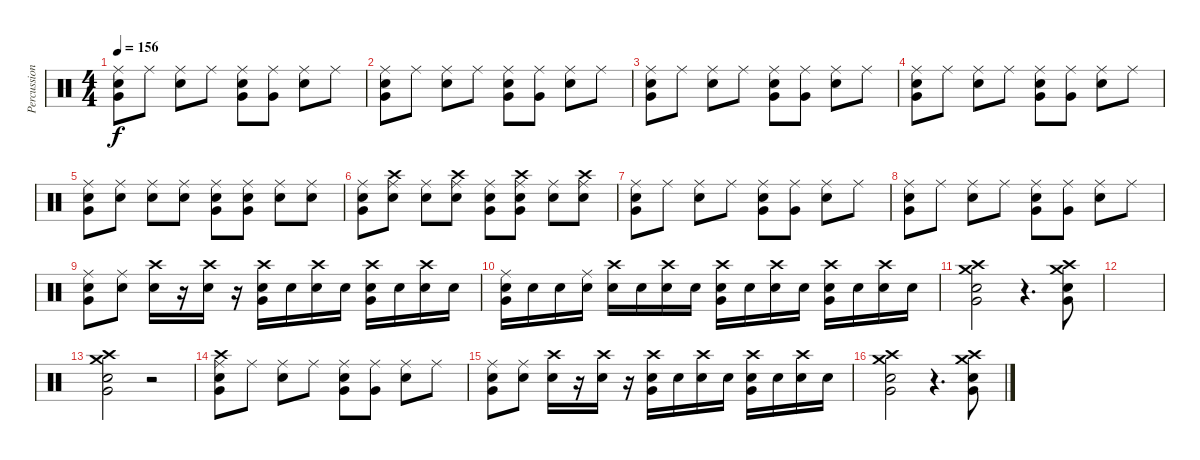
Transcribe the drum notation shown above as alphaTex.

\track ("Percussions" "Percussion") {instrument percussion}
\staff {score}
\articulation defaults
\ts (4 4)
\tempo 156
\clef neutral
\ks c
("Very Low Tom (hit)" "Electric Snare (hit)" "Ride (middle)").8{dy f} "Ride (middle)".8 ("Electric Snare (hit)" "Ride (middle)").8 "Ride (middle)".8 ("Very Low Tom (hit)" "Electric Snare (hit)" "Ride (middle)").8 ("Very Low Tom (hit)" "Ride (middle)").8 ("Electric Snare (hit)" "Ride (middle)").8 "Ride (middle)".8 |
("Very Low Tom (hit)" "Electric Snare (hit)" "Ride (middle)").8 "Ride (middle)".8 ("Electric Snare (hit)" "Ride (middle)").8 "Ride (middle)".8 ("Very Low Tom (hit)" "Electric Snare (hit)" "Ride (middle)").8 ("Very Low Tom (hit)" "Ride (middle)").8 ("Electric Snare (hit)" "Ride (middle)").8 "Ride (middle)".8 |
("Very Low Tom (hit)" "Electric Snare (hit)" "Ride (middle)").8 "Ride (middle)".8 ("Electric Snare (hit)" "Ride (middle)").8 "Ride (middle)".8 ("Very Low Tom (hit)" "Electric Snare (hit)" "Ride (middle)").8 ("Very Low Tom (hit)" "Ride (middle)").8 ("Electric Snare (hit)" "Ride (middle)").8 "Ride (middle)".8 |
("Very Low Tom (hit)" "Electric Snare (hit)" "Ride (middle)").8 "Ride (middle)".8 ("Electric Snare (hit)" "Ride (middle)").8 "Ride (middle)".8 ("Very Low Tom (hit)" "Electric Snare (hit)" "Ride (middle)").8 ("Very Low Tom (hit)" "Ride (middle)").8 ("Electric Snare (hit)" "Ride (middle)").8 "Ride (middle)".8 |
("Very Low Tom (hit)" "Electric Snare (hit)" "Ride (middle)").8 ("Electric Snare (hit)" "Ride (middle)").8 ("Electric Snare (hit)" "Ride (middle)").8 ("Electric Snare (hit)" "Ride (middle)").8 ("Very Low Tom (hit)" "Electric Snare (hit)" "Ride (middle)").8 ("Very Low Tom (hit)" "Electric Snare (hit)" "Ride (middle)").8 ("Electric Snare (hit)" "Ride (middle)").8 ("Electric Snare (hit)" "Ride (middle)").8 |
("Very Low Tom (hit)" "Electric Snare (hit)" "Ride (middle)").8 ("Crash high (hit)" "Electric Snare (hit)" "Ride (middle)").8 ("Electric Snare (hit)" "Ride (middle)").8 ("Crash high (hit)" "Electric Snare (hit)" "Ride (middle)").8 ("Very Low Tom (hit)" "Electric Snare (hit)" "Ride (middle)").8 ("Very Low Tom (hit)" "Crash high (hit)" "Electric Snare (hit)" "Ride (middle)").8 ("Electric Snare (hit)" "Ride (middle)").8 ("Crash high (hit)" "Electric Snare (hit)" "Ride (middle)").8 |
("Very Low Tom (hit)" "Electric Snare (hit)" "Ride (middle)").8 "Ride (middle)".8 ("Electric Snare (hit)" "Ride (middle)").8 "Ride (middle)".8 ("Very Low Tom (hit)" "Electric Snare (hit)" "Ride (middle)").8 ("Very Low Tom (hit)" "Ride (middle)").8 ("Electric Snare (hit)" "Ride (middle)").8 "Ride (middle)".8 |
("Very Low Tom (hit)" "Electric Snare (hit)" "Ride (middle)").8 "Ride (middle)".8 ("Electric Snare (hit)" "Ride (middle)").8 "Ride (middle)".8 ("Very Low Tom (hit)" "Electric Snare (hit)" "Ride (middle)").8 ("Very Low Tom (hit)" "Ride (middle)").8 ("Electric Snare (hit)" "Ride (middle)").8 "Ride (middle)".8 |
("Very Low Tom (hit)" "Electric Snare (hit)" "Ride (middle)").8 ("Electric Snare (hit)" "Ride (middle)").8 ("Electric Snare (hit)" "Crash high (hit)").16 r.16 ("Electric Snare (hit)" "Crash high (hit)").16 r.16 ("Very Low Tom (hit)" "Electric Snare (hit)" "Crash high (hit)").16 "Electric Snare (hit)".16 ("Electric Snare (hit)" "Crash high (hit)").16 "Electric Snare (hit)".16 ("Very Low Tom (hit)" "Electric Snare (hit)" "Crash high (hit)").16 "Electric Snare (hit)".16 ("Electric Snare (hit)" "Crash high (hit)").16 "Electric Snare (hit)".16 |
("Very Low Tom (hit)" "Electric Snare (hit)" "Ride (middle)").16 "Electric Snare (hit)".16 "Electric Snare (hit)".16 ("Electric Snare (hit)" "Ride (middle)").16 ("Electric Snare (hit)" "Crash high (hit)").16 "Electric Snare (hit)".16 ("Electric Snare (hit)" "Crash high (hit)").16 "Electric Snare (hit)".16 ("Very Low Tom (hit)" "Electric Snare (hit)" "Crash high (hit)").16 "Electric Snare (hit)".16 ("Electric Snare (hit)" "Crash high (hit)").16 "Electric Snare (hit)".16 ("Very Low Tom (hit)" "Electric Snare (hit)" "Crash high (hit)").16 "Electric Snare (hit)".16 ("Electric Snare (hit)" "Crash high (hit)").16 "Electric Snare (hit)".16 |
("Very Low Tom (hit)" "Crash high (hit)" "Crash medium (hit)" "Electric Snare (hit)").2 r.4{d} ("Very Low Tom (hit)" "Crash high (hit)" "Crash medium (hit)" "Electric Snare (hit)").8 |
|
("Very Low Tom (hit)" "Crash high (hit)" "Crash medium (hit)" "Electric Snare (hit)").2 r.2 |
("Very Low Tom (hit)" "Crash high (hit)" "Electric Snare (hit)" "Ride (middle)").8 "Ride (middle)".8 ("Electric Snare (hit)" "Ride (middle)").8 "Ride (middle)".8 ("Very Low Tom (hit)" "Electric Snare (hit)" "Ride (middle)").8 ("Very Low Tom (hit)" "Ride (middle)").8 ("Electric Snare (hit)" "Ride (middle)").8 "Ride (middle)".8 |
("Very Low Tom (hit)" "Electric Snare (hit)" "Ride (middle)").8 ("Electric Snare (hit)" "Ride (middle)").8 ("Electric Snare (hit)" "Crash high (hit)").16 r.16 ("Electric Snare (hit)" "Crash high (hit)").16 r.16 ("Very Low Tom (hit)" "Electric Snare (hit)" "Crash high (hit)").16 "Electric Snare (hit)".16 ("Electric Snare (hit)" "Crash high (hit)").16 "Electric Snare (hit)".16 ("Very Low Tom (hit)" "Electric Snare (hit)" "Crash high (hit)").16 "Electric Snare (hit)".16 ("Electric Snare (hit)" "Crash high (hit)").16 "Electric Snare (hit)".16 |
("Very Low Tom (hit)" "Crash high (hit)" "Crash medium (hit)" "Electric Snare (hit)").2 r.4{d} ("Very Low Tom (hit)" "Crash high (hit)" "Crash medium (hit)" "Electric Snare (hit)").8
